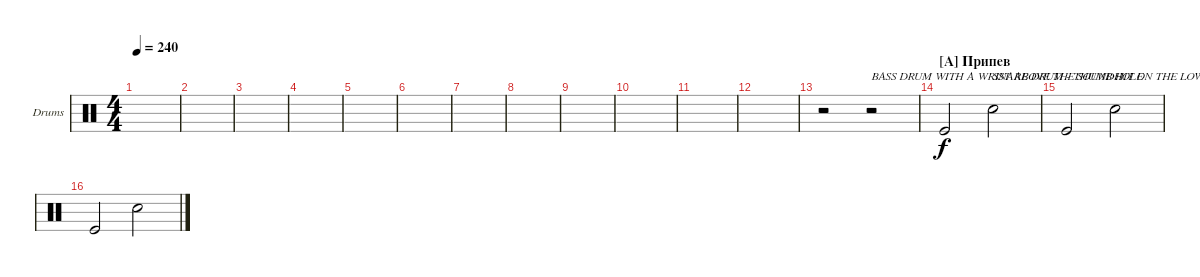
\defaultSystemsLayout 4
\bracketExtendMode groupsimilarinstruments
\firstSystemTrackNameOrientation horizontal
\otherSystemsTrackNameOrientation horizontal
\track ("Drumkit" "Drums") {instrument percussion}
\staff {score}
\articulation defaults
\ts (4 4)
\tempo 240
\clef neutral
\scale
0.333333
\ks c
|
\scale
0.333333 |
\scale
0.333333 |
\scale
0.333333 |
\scale
0.333333 |
\scale
0.333333 |
\scale
0.333333 |
\scale
0.333333 |
\scale
0.333333 |
\scale
0.333333 |
\scale
0.333333 |
\scale
0.333333 |
\scale
0.333333 r.2 r.2{txt "BASS DRUM WITH A WRIST ABOVE THE SOUNDHOLE"} |
\section ("A" "Припев")
\scale
0.333333 "Kick (hit)".2 "Snare (hit) 2".2{txt "SNARE DRUM - THUMB HIT ON THE LOWER STRINGS"} |
\scale
0.333333 "Kick (hit)".2 "Snare (hit) 2".2 |
\scale
0.333333 "Kick (hit)".2 "Snare (hit) 2".2
